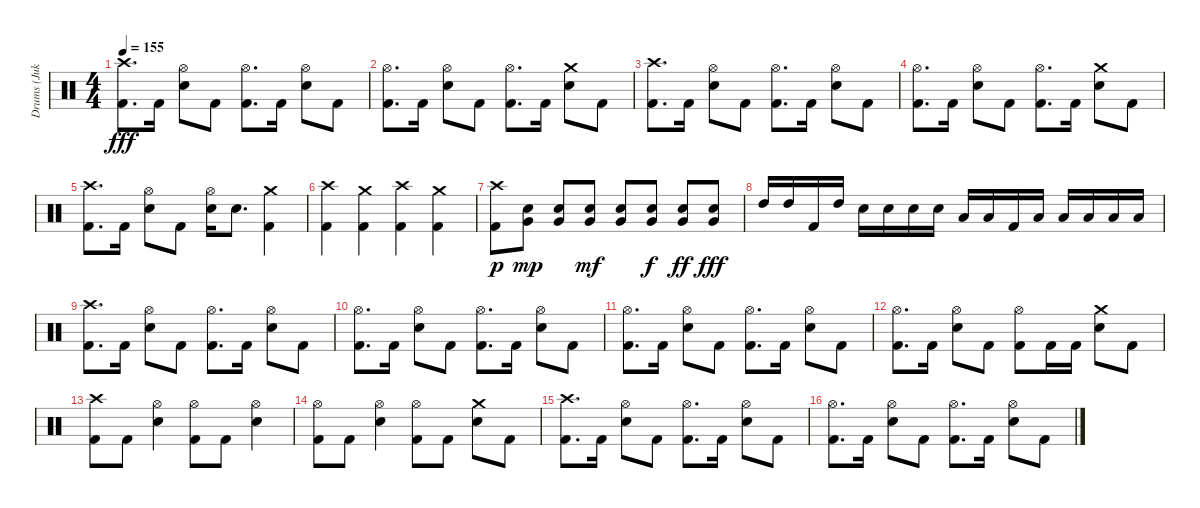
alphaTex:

\track ("Drums (Jukka)" "Drums (Juk") {instrument percussion}
\staff {score}
\articulation defaults
\ts (4 4)
\tempo 155
\clef neutral
\ks c
("Kick (hit) 2" "Crash high (hit)").8{d dy fff} "Kick (hit) 2".16 ("Snare (hit) 2" "Hi-Hat (open)").8 "Kick (hit) 2".8 ("Kick (hit) 2" "Hi-Hat (open)").8{d} "Kick (hit) 2".16 ("Snare (hit) 2" "Hi-Hat (open)").8 "Kick (hit) 2".8 |
("Kick (hit) 2" "Hi-Hat (open)").8{d} "Kick (hit) 2".16 ("Snare (hit) 2" "Hi-Hat (open)").8 "Kick (hit) 2".8 ("Kick (hit) 2" "Hi-Hat (open)").8{d} "Kick (hit) 2".16 ("Snare (hit) 2" "Crash medium (hit)").8 "Kick (hit) 2".8 |
("Kick (hit) 2" "Crash high (hit)").8{d} "Kick (hit) 2".16 ("Snare (hit) 2" "Hi-Hat (open)").8 "Kick (hit) 2".8 ("Kick (hit) 2" "Hi-Hat (open)").8{d} "Kick (hit) 2".16 ("Snare (hit) 2" "Hi-Hat (open)").8 "Kick (hit) 2".8 |
("Kick (hit) 2" "Hi-Hat (open)").8{d} "Kick (hit) 2".16 ("Snare (hit) 2" "Hi-Hat (open)").8 "Kick (hit) 2".8 ("Kick (hit) 2" "Hi-Hat (open)").8{d} "Kick (hit) 2".16 ("Snare (hit) 2" "Crash medium (hit)").8 "Kick (hit) 2".8 |
("Kick (hit) 2" "Crash high (hit)").8{d} "Kick (hit) 2".16 ("Snare (hit) 2" "Hi-Hat (open)").8 "Kick (hit) 2".8 ("Snare (hit) 2" "Hi-Hat (open)").16 "Snare (hit) 2".8{d} ("Kick (hit) 2" "Crash medium (hit)").4 |
("Kick (hit) 2" "Crash high (hit)").4 ("Kick (hit) 2" "Crash medium (hit)").4 ("Kick (hit) 2" "Crash high (hit)").4 ("Kick (hit) 2" "Crash medium (hit)").4 |
("Kick (hit) 2" "Crash high (hit)").8{dy p} ("Snare (hit) 2" "Very Low Tom (hit)").8{dy mp} ("Snare (hit) 2" "Very Low Tom (hit)").8 ("Snare (hit) 2" "Very Low Tom (hit)").8{dy mf} ("Snare (hit) 2" "Very Low Tom (hit)").8 ("Snare (hit) 2" "Very Low Tom (hit)").8{dy f} ("Snare (hit) 2" "Very Low Tom (hit)").8{dy ff} ("Snare (hit) 2" "Very Low Tom (hit)").8{dy fff} |
"High Tom (hit)".16 "High Tom (hit)".16 "Kick (hit) 2".16 "High Tom (hit)".16 "Snare (hit) 2".16 "Snare (hit) 2".16 "Snare (hit) 2".16 "Snare (hit) 2".16 "Low Tom (hit)".16 "Low Tom (hit)".16 "Kick (hit) 2".16 "Low Tom (hit)".16 "Low Floor Tom (hit)".16 "Low Floor Tom (hit)".16 "Low Tom (hit)".16 "Low Floor Tom (hit)".16 |
("Kick (hit) 2" "Crash high (hit)").8{d} "Kick (hit) 2".16 ("Snare (hit) 2" "Hi-Hat (open)").8 "Kick (hit) 2".8 ("Kick (hit) 2" "Hi-Hat (open)").8{d} "Kick (hit) 2".16 ("Snare (hit) 2" "Hi-Hat (open)").8 "Kick (hit) 2".8 |
("Kick (hit) 2" "Hi-Hat (open)").8{d} "Kick (hit) 2".16 ("Snare (hit) 2" "Hi-Hat (open)").8 "Kick (hit) 2".8 ("Kick (hit) 2" "Hi-Hat (open)").8{d} "Kick (hit) 2".16 ("Snare (hit) 2" "Hi-Hat (open)").8 "Kick (hit) 2".8 |
("Kick (hit) 2" "Hi-Hat (open)").8{d} "Kick (hit) 2".16 ("Snare (hit) 2" "Hi-Hat (open)").8 "Kick (hit) 2".8 ("Kick (hit) 2" "Hi-Hat (open)").8{d} "Kick (hit) 2".16 ("Snare (hit) 2" "Hi-Hat (open)").8 "Kick (hit) 2".8 |
("Kick (hit) 2" "Hi-Hat (open)").8{d} "Kick (hit) 2".16 ("Snare (hit) 2" "Hi-Hat (open)").8 "Kick (hit) 2".8 ("Kick (hit) 2" "Hi-Hat (open)").8 "Kick (hit) 2".16 "Kick (hit) 2".16 ("Snare (hit) 2" "Crash medium (hit)").8 "Kick (hit) 2".8 |
("Kick (hit) 2" "Crash high (hit)").8 "Kick (hit) 2".8 ("Snare (hit) 2" "Hi-Hat (open)").4 ("Kick (hit) 2" "Hi-Hat (open)").8 "Kick (hit) 2".8 ("Snare (hit) 2" "Hi-Hat (open)").4 |
("Kick (hit) 2" "Hi-Hat (open)").8 "Kick (hit) 2".8 ("Snare (hit) 2" "Hi-Hat (open)").4 ("Kick (hit) 2" "Hi-Hat (open)").8 "Kick (hit) 2".8 ("Snare (hit) 2" "Crash medium (hit)").8 "Kick (hit) 2".8 |
("Kick (hit) 2" "Crash high (hit)").8{d} "Kick (hit) 2".16 ("Snare (hit) 2" "Hi-Hat (open)").8 "Kick (hit) 2".8 ("Kick (hit) 2" "Hi-Hat (open)").8{d} "Kick (hit) 2".16 ("Snare (hit) 2" "Hi-Hat (open)").8 "Kick (hit) 2".8 |
("Kick (hit) 2" "Hi-Hat (open)").8{d} "Kick (hit) 2".16 ("Snare (hit) 2" "Hi-Hat (open)").8 "Kick (hit) 2".8 ("Kick (hit) 2" "Hi-Hat (open)").8{d} "Kick (hit) 2".16 ("Snare (hit) 2" "Hi-Hat (open)").8 "Kick (hit) 2".8
